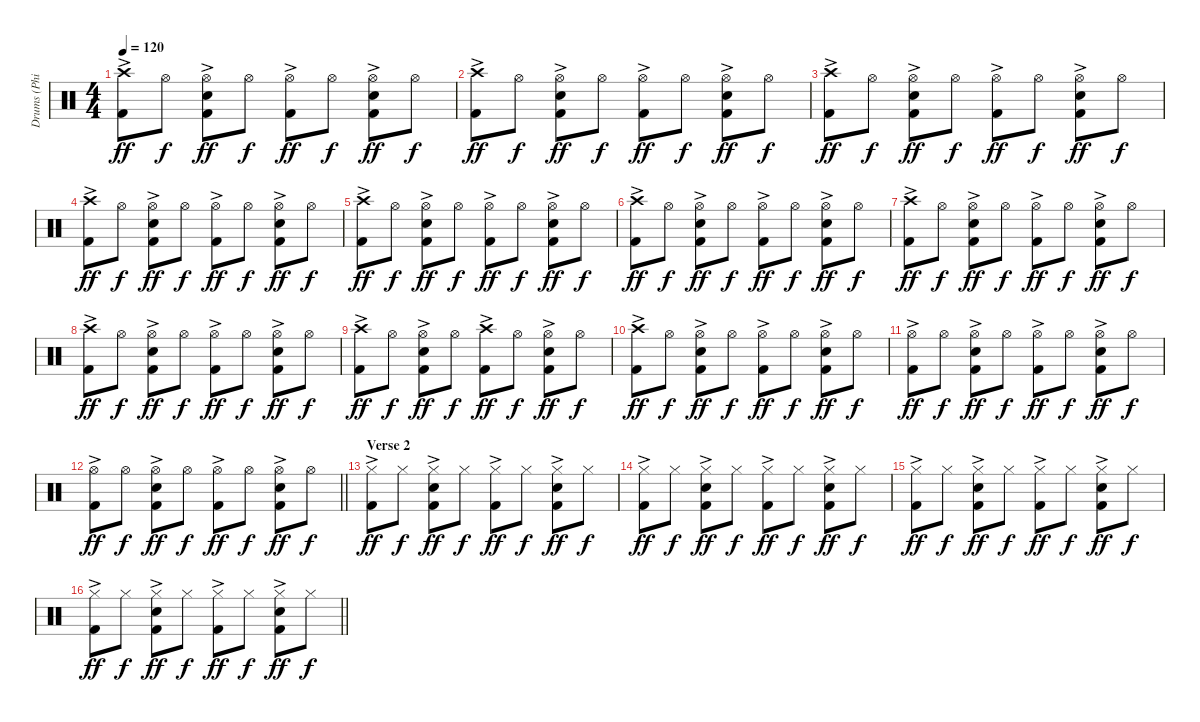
\track ("Drums (Phil Rudd)" "Drums (Phi") {instrument percussion}
\staff {score}
\articulation defaults
\ts (4 4)
\tempo 120
\clef neutral
\ks c
("Crash high (hit)"{ac} "Kick (hit) 2").8{dy ff} "Hi-Hat (open)".8{dy f} ("Snare (hit) 2" "Hi-Hat (open)"{ac} "Kick (hit) 2").8{dy ff} "Hi-Hat (open)".8{dy f} ("Hi-Hat (open)"{ac} "Kick (hit) 2").8{dy ff} "Hi-Hat (open)".8{dy f} ("Hi-Hat (open)"{ac} "Snare (hit) 2" "Kick (hit) 2").8{dy ff} "Hi-Hat (open)".8{dy f} |
("Crash high (hit)"{ac} "Kick (hit) 2").8{dy ff} "Hi-Hat (open)".8{dy f} ("Snare (hit) 2" "Hi-Hat (open)"{ac} "Kick (hit) 2").8{dy ff} "Hi-Hat (open)".8{dy f} ("Hi-Hat (open)"{ac} "Kick (hit) 2").8{dy ff} "Hi-Hat (open)".8{dy f} ("Hi-Hat (open)"{ac} "Snare (hit) 2" "Kick (hit) 2").8{dy ff} "Hi-Hat (open)".8{dy f} |
("Crash high (hit)"{ac} "Kick (hit) 2").8{dy ff} "Hi-Hat (open)".8{dy f} ("Snare (hit) 2" "Hi-Hat (open)"{ac} "Kick (hit) 2").8{dy ff} "Hi-Hat (open)".8{dy f} ("Hi-Hat (open)"{ac} "Kick (hit) 2").8{dy ff} "Hi-Hat (open)".8{dy f} ("Hi-Hat (open)"{ac} "Snare (hit) 2" "Kick (hit) 2").8{dy ff} "Hi-Hat (open)".8{dy f} |
("Crash high (hit)"{ac} "Kick (hit) 2").8{dy ff} "Hi-Hat (open)".8{dy f} ("Snare (hit) 2" "Hi-Hat (open)"{ac} "Kick (hit) 2").8{dy ff} "Hi-Hat (open)".8{dy f} ("Hi-Hat (open)"{ac} "Kick (hit) 2").8{dy ff} "Hi-Hat (open)".8{dy f} ("Hi-Hat (open)"{ac} "Snare (hit) 2" "Kick (hit) 2").8{dy ff} "Hi-Hat (open)".8{dy f} |
("Crash high (hit)"{ac} "Kick (hit) 2").8{dy ff} "Hi-Hat (open)".8{dy f} ("Snare (hit) 2" "Hi-Hat (open)"{ac} "Kick (hit) 2").8{dy ff} "Hi-Hat (open)".8{dy f} ("Hi-Hat (open)"{ac} "Kick (hit) 2").8{dy ff} "Hi-Hat (open)".8{dy f} ("Hi-Hat (open)"{ac} "Snare (hit) 2" "Kick (hit) 2").8{dy ff} "Hi-Hat (open)".8{dy f} |
("Crash high (hit)"{ac} "Kick (hit) 2").8{dy ff} "Hi-Hat (open)".8{dy f} ("Snare (hit) 2" "Hi-Hat (open)"{ac} "Kick (hit) 2").8{dy ff} "Hi-Hat (open)".8{dy f} ("Hi-Hat (open)"{ac} "Kick (hit) 2").8{dy ff} "Hi-Hat (open)".8{dy f} ("Hi-Hat (open)"{ac} "Snare (hit) 2" "Kick (hit) 2").8{dy ff} "Hi-Hat (open)".8{dy f} |
("Crash high (hit)"{ac} "Kick (hit) 2").8{dy ff} "Hi-Hat (open)".8{dy f} ("Snare (hit) 2" "Hi-Hat (open)"{ac} "Kick (hit) 2").8{dy ff} "Hi-Hat (open)".8{dy f} ("Hi-Hat (open)"{ac} "Kick (hit) 2").8{dy ff} "Hi-Hat (open)".8{dy f} ("Hi-Hat (open)"{ac} "Snare (hit) 2" "Kick (hit) 2").8{dy ff} "Hi-Hat (open)".8{dy f} |
("Crash high (hit)"{ac} "Kick (hit) 2").8{dy ff} "Hi-Hat (open)".8{dy f} ("Snare (hit) 2" "Hi-Hat (open)"{ac} "Kick (hit) 2").8{dy ff} "Hi-Hat (open)".8{dy f} ("Hi-Hat (open)"{ac} "Kick (hit) 2").8{dy ff} "Hi-Hat (open)".8{dy f} ("Hi-Hat (open)"{ac} "Snare (hit) 2" "Kick (hit) 2").8{dy ff} "Hi-Hat (open)".8{dy f} |
("Crash high (hit)"{ac} "Kick (hit) 2").8{dy ff} "Hi-Hat (open)".8{dy f} ("Snare (hit) 2" "Hi-Hat (open)"{ac} "Kick (hit) 2").8{dy ff} "Hi-Hat (open)".8{dy f} ("Crash high (hit)"{ac} "Kick (hit) 2").8{dy ff} "Hi-Hat (open)".8{dy f} ("Hi-Hat (open)"{ac} "Snare (hit) 2" "Kick (hit) 2").8{dy ff} "Hi-Hat (open)".8{dy f} |
("Crash high (hit)"{ac} "Kick (hit) 2").8{dy ff} "Hi-Hat (open)".8{dy f} ("Snare (hit) 2" "Hi-Hat (open)"{ac} "Kick (hit) 2").8{dy ff} "Hi-Hat (open)".8{dy f} ("Hi-Hat (open)"{ac} "Kick (hit) 2").8{dy ff} "Hi-Hat (open)".8{dy f} ("Hi-Hat (open)"{ac} "Snare (hit) 2" "Kick (hit) 2").8{dy ff} "Hi-Hat (open)".8{dy f} |
("Hi-Hat (open)"{ac} "Kick (hit) 2").8{dy ff} "Hi-Hat (open)".8{dy f} ("Snare (hit) 2" "Hi-Hat (open)"{ac} "Kick (hit) 2").8{dy ff} "Hi-Hat (open)".8{dy f} ("Hi-Hat (open)"{ac} "Kick (hit) 2").8{dy ff} "Hi-Hat (open)".8{dy f} ("Hi-Hat (open)"{ac} "Snare (hit) 2" "Kick (hit) 2").8{dy ff} "Hi-Hat (open)".8{dy f} |
\barLineRight lightlight
("Hi-Hat (open)"{ac} "Kick (hit) 2").8{dy ff} "Hi-Hat (open)".8{dy f} ("Snare (hit) 2" "Hi-Hat (open)"{ac} "Kick (hit) 2").8{dy ff} "Hi-Hat (open)".8{dy f} ("Hi-Hat (open)"{ac} "Kick (hit) 2").8{dy ff} "Hi-Hat (open)".8{dy f} ("Hi-Hat (open)"{ac} "Snare (hit) 2" "Kick (hit) 2").8{dy ff} "Hi-Hat (open)".8{dy f} |
\section ("" "Verse 2")
("Kick (hit) 2" "Hi-Hat (closed)"{ac}).8{dy ff} "Hi-Hat (closed)".8{dy f} ("Kick (hit) 2" "Snare (hit) 2" "Hi-Hat (closed)"{ac}).8{dy ff} "Hi-Hat (closed)".8{dy f} ("Hi-Hat (closed)"{ac} "Kick (hit) 2").8{dy ff} "Hi-Hat (closed)".8{dy f} ("Kick (hit) 2" "Snare (hit) 2" "Hi-Hat (closed)"{ac}).8{dy ff} "Hi-Hat (closed)".8{dy f} |
("Hi-Hat (closed)"{ac} "Kick (hit) 2").8{dy ff} "Hi-Hat (closed)".8{dy f} ("Kick (hit) 2" "Snare (hit) 2" "Hi-Hat (closed)"{ac}).8{dy ff} "Hi-Hat (closed)".8{dy f} ("Kick (hit) 2" "Hi-Hat (closed)"{ac}).8{dy ff} "Hi-Hat (closed)".8{dy f} ("Kick (hit) 2" "Snare (hit) 2" "Hi-Hat (closed)"{ac}).8{dy ff} "Hi-Hat (closed)".8{dy f} |
("Hi-Hat (closed)"{ac} "Kick (hit) 2").8{dy ff} "Hi-Hat (closed)".8{dy f} ("Kick (hit) 2" "Snare (hit) 2" "Hi-Hat (closed)"{ac}).8{dy ff} "Hi-Hat (closed)".8{dy f} ("Kick (hit) 2" "Hi-Hat (closed)"{ac}).8{dy ff} "Hi-Hat (closed)".8{dy f} ("Kick (hit) 2" "Snare (hit) 2" "Hi-Hat (closed)"{ac}).8{dy ff} "Hi-Hat (closed)".8{dy f} |
\barLineRight lightlight
("Hi-Hat (closed)"{ac} "Kick (hit) 2").8{dy ff} "Hi-Hat (closed)".8{dy f} ("Kick (hit) 2" "Snare (hit) 2" "Hi-Hat (closed)"{ac}).8{dy ff} "Hi-Hat (closed)".8{dy f} ("Kick (hit) 2" "Hi-Hat (closed)"{ac}).8{dy ff} "Hi-Hat (closed)".8{dy f} ("Kick (hit) 2" "Snare (hit) 2" "Hi-Hat (closed)"{ac}).8{dy ff} "Hi-Hat (closed)".8{dy f}
